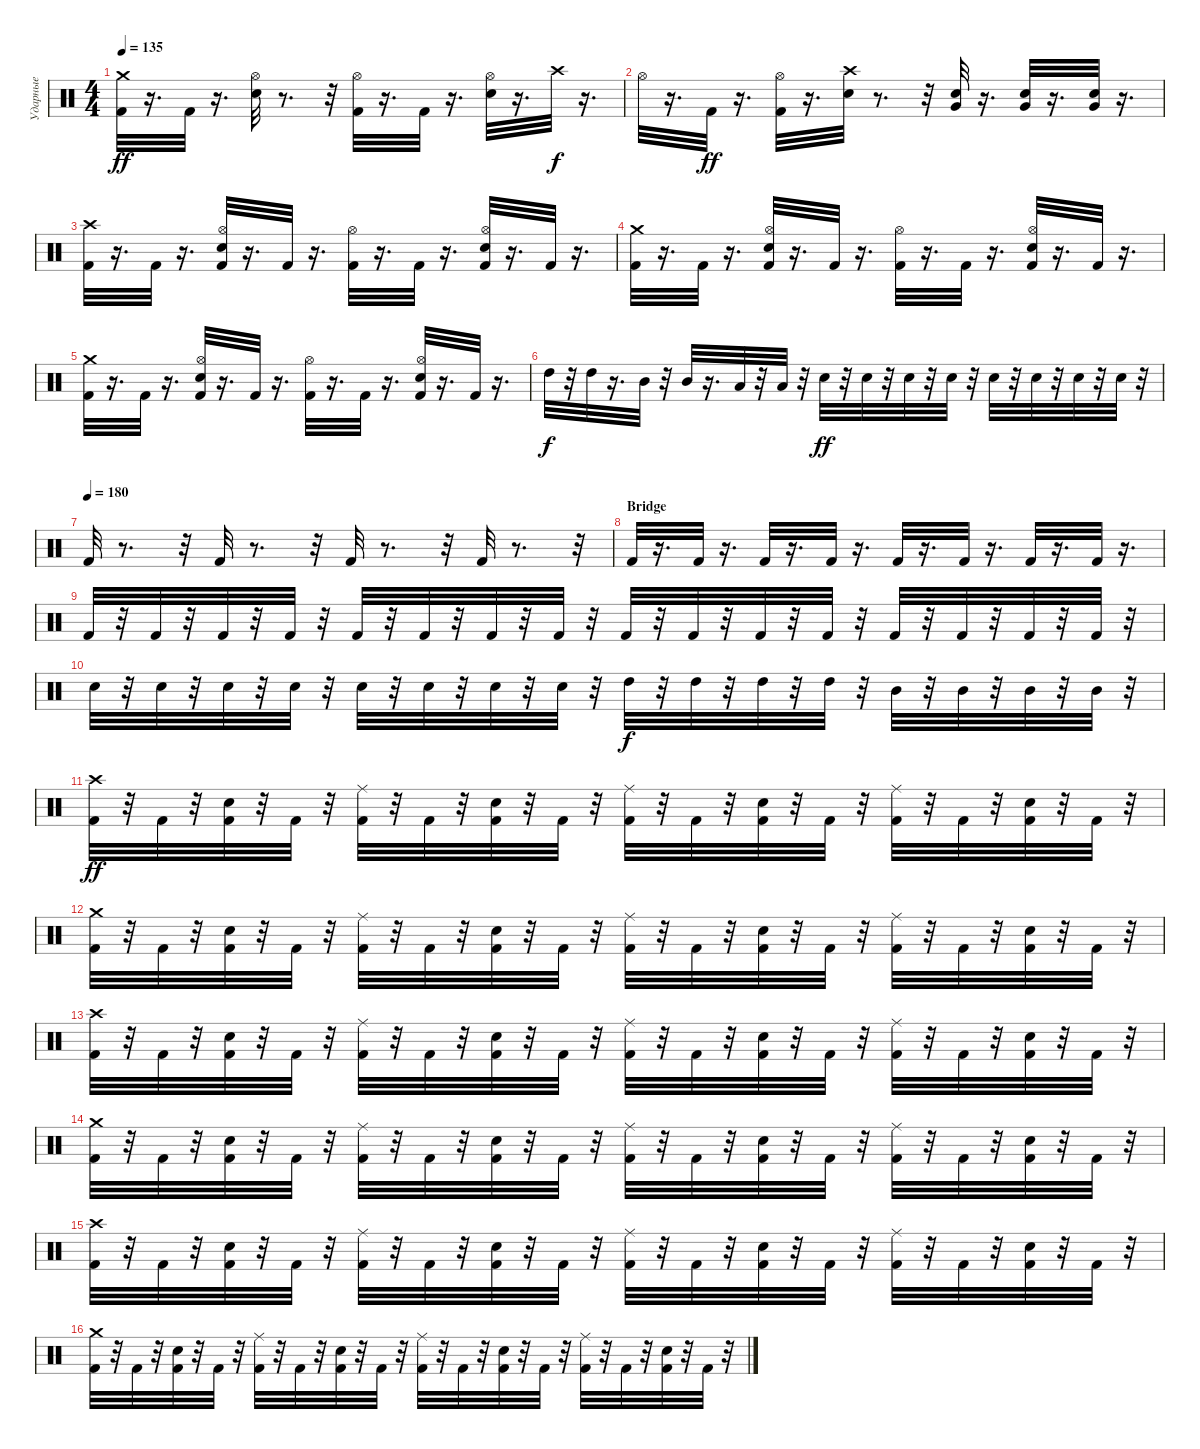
\track ("Ударные" "Ударные") {instrument percussion}
\staff {score}
\articulation defaults
\ts (4 4)
\tempo 135
\clef neutral
\ks c
("Crash medium (hit)" "Kick (hit) 2").32{dy ff} r.16{d} "Kick (hit) 2".32 r.16{d} ("Hi-Hat (open)" "Electric Snare (hit)").32 r.8{d} r.32 ("Hi-Hat (open)" "Kick (hit) 2").32 r.16{d} "Kick (hit) 2".32 r.16{d} ("Hi-Hat (open)" "Electric Snare (hit)").32 r.16{d} "Crash high (hit)".32{dy f} r.16{d} |
"Hi-Hat (open)".32 r.16{d} "Kick (hit) 2".32{dy ff} r.16{d} ("Hi-Hat (open)" "Kick (hit) 2").32 r.16{d} ("Crash high (hit)" "Electric Snare (hit)").32 r.8{d} r.32 ("Very Low Tom (hit)" "Electric Snare (hit)").32 r.16{d} ("Very Low Tom (hit)" "Electric Snare (hit)").32 r.16{d} ("Very Low Tom (hit)" "Electric Snare (hit)").32 r.16{d} |
("Crash high (hit)" "Kick (hit) 2").32 r.16{d} "Kick (hit) 2".32 r.16{d} ("Hi-Hat (open)" "Electric Snare (hit)" "Kick (hit) 2").32 r.16{d} "Kick (hit) 2".32 r.16{d} ("Hi-Hat (open)" "Kick (hit) 2").32 r.16{d} "Kick (hit) 2".32 r.16{d} ("Hi-Hat (open)" "Electric Snare (hit)" "Kick (hit) 2").32 r.16{d} "Kick (hit) 2".32 r.16{d} |
("Crash medium (hit)" "Kick (hit) 2").32 r.16{d} "Kick (hit) 2".32 r.16{d} ("Hi-Hat (open)" "Electric Snare (hit)" "Kick (hit) 2").32 r.16{d} "Kick (hit) 2".32 r.16{d} ("Hi-Hat (open)" "Kick (hit) 2").32 r.16{d} "Kick (hit) 2".32 r.16{d} ("Hi-Hat (open)" "Electric Snare (hit)" "Kick (hit) 2").32 r.16{d} "Kick (hit) 2".32 r.16{d} |
("Crash medium (hit)" "Kick (hit) 2").32 r.16{d} "Kick (hit) 2".32 r.16{d} ("Hi-Hat (open)" "Electric Snare (hit)" "Kick (hit) 2").32 r.16{d} "Kick (hit) 2".32 r.16{d} ("Hi-Hat (open)" "Kick (hit) 2").32 r.16{d} "Kick (hit) 2".32 r.16{d} ("Hi-Hat (open)" "Electric Snare (hit)" "Kick (hit) 2").32 r.16{d} "Kick (hit) 2".32 r.16{d} |
"High Tom (hit)".32{dy f} r.32 "High Tom (hit)".32 r.16{d} "Mid Tom (hit)".32 r.32 "Mid Tom (hit)".32 r.16{d} "Low Tom (hit)".32 r.32 "Low Tom (hit)".32 r.32 "Electric Snare (hit)".32{dy ff} r.32 "Electric Snare (hit)".32 r.32 "Electric Snare (hit)".32 r.32 "Electric Snare (hit)".32 r.32 "Electric Snare (hit)".32 r.32 "Electric Snare (hit)".32 r.32 "Electric Snare (hit)".32 r.32 "Electric Snare (hit)".32 r.32 |
\tempo (180)
"Kick (hit) 2".32 r.8{d} r.32 "Kick (hit) 2".32 r.8{d} r.32 "Kick (hit) 2".32 r.8{d} r.32 "Kick (hit) 2".32 r.8{d} r.32 |
\section ("" "Bridge")
"Kick (hit) 2".32 r.16{d} "Kick (hit) 2".32 r.16{d} "Kick (hit) 2".32 r.16{d} "Kick (hit) 2".32 r.16{d} "Kick (hit) 2".32 r.16{d} "Kick (hit) 2".32 r.16{d} "Kick (hit) 2".32 r.16{d} "Kick (hit) 2".32 r.16{d} |
"Kick (hit) 2".32 r.32 "Kick (hit) 2".32 r.32 "Kick (hit) 2".32 r.32 "Kick (hit) 2".32 r.32 "Kick (hit) 2".32 r.32 "Kick (hit) 2".32 r.32 "Kick (hit) 2".32 r.32 "Kick (hit) 2".32 r.32 "Kick (hit) 2".32 r.32 "Kick (hit) 2".32 r.32 "Kick (hit) 2".32 r.32 "Kick (hit) 2".32 r.32 "Kick (hit) 2".32 r.32 "Kick (hit) 2".32 r.32 "Kick (hit) 2".32 r.32 "Kick (hit) 2".32 r.32 |
"Electric Snare (hit)".32 r.32 "Electric Snare (hit)".32 r.32 "Electric Snare (hit)".32 r.32 "Electric Snare (hit)".32 r.32 "Electric Snare (hit)".32 r.32 "Electric Snare (hit)".32 r.32 "Electric Snare (hit)".32 r.32 "Electric Snare (hit)".32 r.32 "High Tom (hit)".32{dy f} r.32 "High Tom (hit)".32 r.32 "High Tom (hit)".32 r.32 "High Tom (hit)".32 r.32 "Mid Tom (hit)".32 r.32 "Mid Tom (hit)".32 r.32 "Mid Tom (hit)".32 r.32 "Mid Tom (hit)".32 r.32 |
("Crash high (hit)" "Kick (hit) 2").32{dy ff} r.32 "Kick (hit) 2".32 r.32 ("Kick (hit) 2" "Electric Snare (hit)").32 r.32 "Kick (hit) 2".32 r.32 ("Ride (middle)" "Kick (hit) 2").32 r.32 "Kick (hit) 2".32 r.32 ("Electric Snare (hit)" "Kick (hit) 2").32 r.32 "Kick (hit) 2".32 r.32 ("Ride (middle)" "Kick (hit) 2").32 r.32 "Kick (hit) 2".32 r.32 ("Electric Snare (hit)" "Kick (hit) 2").32 r.32 "Kick (hit) 2".32 r.32 ("Ride (middle)" "Kick (hit) 2").32 r.32 "Kick (hit) 2".32 r.32 ("Electric Snare (hit)" "Kick (hit) 2").32 r.32 "Kick (hit) 2".32 r.32 |
("Crash medium (hit)" "Kick (hit) 2").32 r.32 "Kick (hit) 2".32 r.32 ("Kick (hit) 2" "Electric Snare (hit)").32 r.32 "Kick (hit) 2".32 r.32 ("Ride (middle)" "Kick (hit) 2").32 r.32 "Kick (hit) 2".32 r.32 ("Electric Snare (hit)" "Kick (hit) 2").32 r.32 "Kick (hit) 2".32 r.32 ("Ride (middle)" "Kick (hit) 2").32 r.32 "Kick (hit) 2".32 r.32 ("Electric Snare (hit)" "Kick (hit) 2").32 r.32 "Kick (hit) 2".32 r.32 ("Ride (middle)" "Kick (hit) 2").32 r.32 "Kick (hit) 2".32 r.32 ("Electric Snare (hit)" "Kick (hit) 2").32 r.32 "Kick (hit) 2".32 r.32 |
("Crash high (hit)" "Kick (hit) 2").32 r.32 "Kick (hit) 2".32 r.32 ("Kick (hit) 2" "Electric Snare (hit)").32 r.32 "Kick (hit) 2".32 r.32 ("Ride (middle)" "Kick (hit) 2").32 r.32 "Kick (hit) 2".32 r.32 ("Electric Snare (hit)" "Kick (hit) 2").32 r.32 "Kick (hit) 2".32 r.32 ("Ride (middle)" "Kick (hit) 2").32 r.32 "Kick (hit) 2".32 r.32 ("Electric Snare (hit)" "Kick (hit) 2").32 r.32 "Kick (hit) 2".32 r.32 ("Ride (middle)" "Kick (hit) 2").32 r.32 "Kick (hit) 2".32 r.32 ("Electric Snare (hit)" "Kick (hit) 2").32 r.32 "Kick (hit) 2".32 r.32 |
("Crash medium (hit)" "Kick (hit) 2").32 r.32 "Kick (hit) 2".32 r.32 ("Kick (hit) 2" "Electric Snare (hit)").32 r.32 "Kick (hit) 2".32 r.32 ("Ride (middle)" "Kick (hit) 2").32 r.32 "Kick (hit) 2".32 r.32 ("Electric Snare (hit)" "Kick (hit) 2").32 r.32 "Kick (hit) 2".32 r.32 ("Ride (middle)" "Kick (hit) 2").32 r.32 "Kick (hit) 2".32 r.32 ("Electric Snare (hit)" "Kick (hit) 2").32 r.32 "Kick (hit) 2".32 r.32 ("Ride (middle)" "Kick (hit) 2").32 r.32 "Kick (hit) 2".32 r.32 ("Electric Snare (hit)" "Kick (hit) 2").32 r.32 "Kick (hit) 2".32 r.32 |
("Crash high (hit)" "Kick (hit) 2").32 r.32 "Kick (hit) 2".32 r.32 ("Kick (hit) 2" "Electric Snare (hit)").32 r.32 "Kick (hit) 2".32 r.32 ("Ride (middle)" "Kick (hit) 2").32 r.32 "Kick (hit) 2".32 r.32 ("Electric Snare (hit)" "Kick (hit) 2").32 r.32 "Kick (hit) 2".32 r.32 ("Ride (middle)" "Kick (hit) 2").32 r.32 "Kick (hit) 2".32 r.32 ("Electric Snare (hit)" "Kick (hit) 2").32 r.32 "Kick (hit) 2".32 r.32 ("Ride (middle)" "Kick (hit) 2").32 r.32 "Kick (hit) 2".32 r.32 ("Electric Snare (hit)" "Kick (hit) 2").32 r.32 "Kick (hit) 2".32 r.32 |
("Crash medium (hit)" "Kick (hit) 2").32 r.32 "Kick (hit) 2".32 r.32 ("Kick (hit) 2" "Electric Snare (hit)").32 r.32 "Kick (hit) 2".32 r.32 ("Ride (middle)" "Kick (hit) 2").32 r.32 "Kick (hit) 2".32 r.32 ("Electric Snare (hit)" "Kick (hit) 2").32 r.32 "Kick (hit) 2".32 r.32 ("Ride (middle)" "Kick (hit) 2").32 r.32 "Kick (hit) 2".32 r.32 ("Electric Snare (hit)" "Kick (hit) 2").32 r.32 "Kick (hit) 2".32 r.32 ("Ride (middle)" "Kick (hit) 2").32 r.32 "Kick (hit) 2".32 r.32 ("Electric Snare (hit)" "Kick (hit) 2").32 r.32 "Kick (hit) 2".32 r.32
